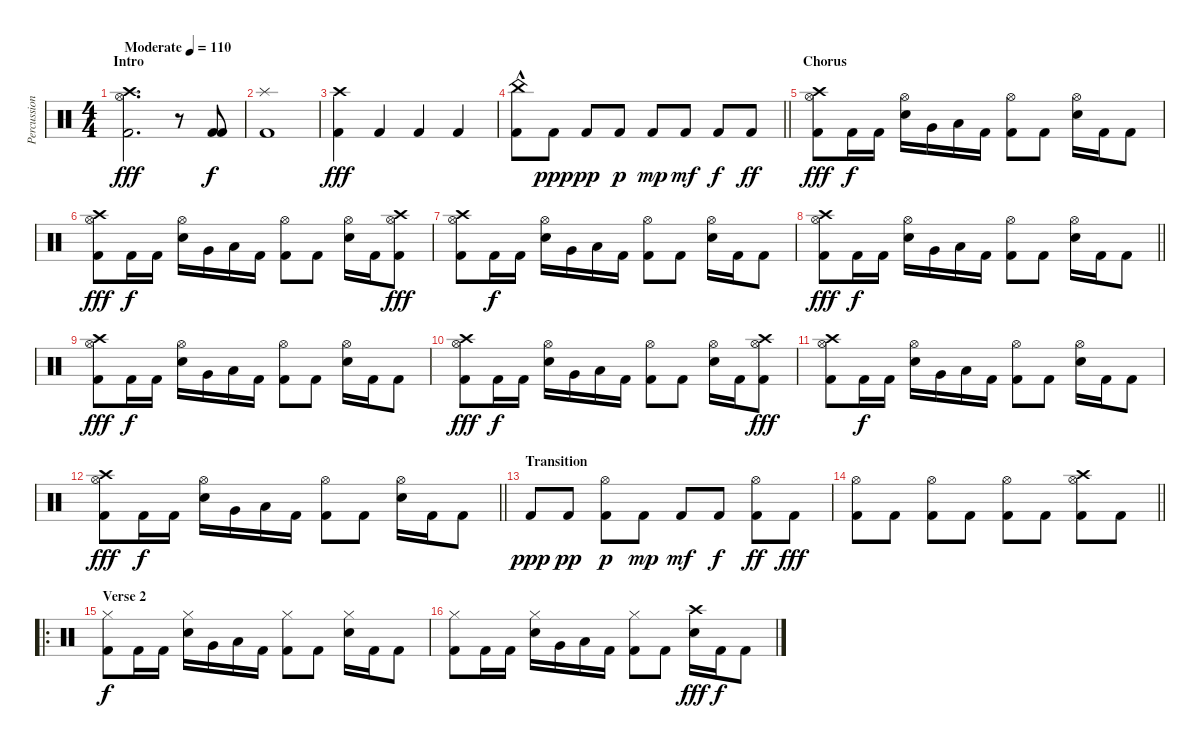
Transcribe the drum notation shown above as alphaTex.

\track ("Percussion" "Percussion") {instrument percussion}
\staff {score}
\articulation defaults
\ts (4 4)
\section ("" "Intro")
\tempo (110 "Moderate")
\clef neutral
\ks c
("Crash high (hit)" "Hi-Hat (open)" "Kick (hit) 2").2{d dy fff} r.8 ("Kick (hit) 2" "Kick (hit) 2").8{dy f} |
("Splash (hit)" "Kick (hit) 2").1 |
("Crash high (hit)" "Kick (hit) 2").4{dy fff} "Kick (hit) 2".4 "Kick (hit) 2".4 "Kick (hit) 2".4 |
\barLineRight lightlight
("China (hit)"{hac} "Kick (hit) 2").8 "Kick (hit) 2".8{dy ppp} "Kick (hit) 2".8{dy pp} "Kick (hit) 2".8{dy p} "Kick (hit) 2".8{dy mp} "Kick (hit) 2".8{dy mf} "Kick (hit) 2".8{dy f} "Kick (hit) 2".8{dy ff} |
\section ("" "Chorus")
("Crash high (hit)" "Hi-Hat (open)" "Kick (hit) 2").8{dy fff} "Kick (hit) 2".16{dy f} "Kick (hit) 2".16 ("Hi-Hat (open)" "Snare (hit) 2").16 "Very Low Tom (hit)".16 "Low Tom (hit)".16 "Kick (hit) 2".16 ("Hi-Hat (open)" "Kick (hit) 2").8 "Kick (hit) 2".8 ("Hi-Hat (open)" "Snare (hit) 2").16 "Kick (hit) 2".16 "Kick (hit) 2".8 |
("Crash high (hit)" "Hi-Hat (open)" "Kick (hit) 2").8{dy fff} "Kick (hit) 2".16{dy f} "Kick (hit) 2".16 ("Hi-Hat (open)" "Snare (hit) 2").16 "Very Low Tom (hit)".16 "Low Tom (hit)".16 "Kick (hit) 2".16 ("Hi-Hat (open)" "Kick (hit) 2").8 "Kick (hit) 2".8 ("Hi-Hat (open)" "Snare (hit) 2").16 "Kick (hit) 2".16 ("Crash high (hit)" "Hi-Hat (open)" "Kick (hit) 2").8{dy fff} |
("Crash high (hit)" "Hi-Hat (open)" "Kick (hit) 2").8 "Kick (hit) 2".16{dy f} "Kick (hit) 2".16 ("Hi-Hat (open)" "Snare (hit) 2").16 "Very Low Tom (hit)".16 "Low Tom (hit)".16 "Kick (hit) 2".16 ("Hi-Hat (open)" "Kick (hit) 2").8 "Kick (hit) 2".8 ("Hi-Hat (open)" "Snare (hit) 2").16 "Kick (hit) 2".16 "Kick (hit) 2".8 |
\barLineRight lightlight
("Crash high (hit)" "Hi-Hat (open)" "Kick (hit) 2").8{dy fff} "Kick (hit) 2".16{dy f} "Kick (hit) 2".16 ("Hi-Hat (open)" "Snare (hit) 2").16 "Very Low Tom (hit)".16 "Low Tom (hit)".16 "Kick (hit) 2".16 ("Hi-Hat (open)" "Kick (hit) 2").8 "Kick (hit) 2".8 ("Hi-Hat (open)" "Snare (hit) 2").16 "Kick (hit) 2".16 "Kick (hit) 2".8 |
("Crash high (hit)" "Hi-Hat (open)" "Kick (hit) 2").8{dy fff} "Kick (hit) 2".16{dy f} "Kick (hit) 2".16 ("Hi-Hat (open)" "Snare (hit) 2").16 "Very Low Tom (hit)".16 "Low Tom (hit)".16 "Kick (hit) 2".16 ("Hi-Hat (open)" "Kick (hit) 2").8 "Kick (hit) 2".8 ("Hi-Hat (open)" "Snare (hit) 2").16 "Kick (hit) 2".16 "Kick (hit) 2".8 |
("Crash high (hit)" "Hi-Hat (open)" "Kick (hit) 2").8{dy fff} "Kick (hit) 2".16{dy f} "Kick (hit) 2".16 ("Hi-Hat (open)" "Snare (hit) 2").16 "Very Low Tom (hit)".16 "Low Tom (hit)".16 "Kick (hit) 2".16 ("Hi-Hat (open)" "Kick (hit) 2").8 "Kick (hit) 2".8 ("Hi-Hat (open)" "Snare (hit) 2").16 "Kick (hit) 2".16 ("Crash high (hit)" "Hi-Hat (open)" "Kick (hit) 2").8{dy fff} |
("Crash high (hit)" "Hi-Hat (open)" "Kick (hit) 2").8 "Kick (hit) 2".16{dy f} "Kick (hit) 2".16 ("Hi-Hat (open)" "Snare (hit) 2").16 "Very Low Tom (hit)".16 "Low Tom (hit)".16 "Kick (hit) 2".16 ("Hi-Hat (open)" "Kick (hit) 2").8 "Kick (hit) 2".8 ("Hi-Hat (open)" "Snare (hit) 2").16 "Kick (hit) 2".16 "Kick (hit) 2".8 |
\barLineRight lightlight
("Crash high (hit)" "Hi-Hat (open)" "Kick (hit) 2").8{dy fff} "Kick (hit) 2".16{dy f} "Kick (hit) 2".16 ("Hi-Hat (open)" "Snare (hit) 2").16 "Very Low Tom (hit)".16 "Low Tom (hit)".16 "Kick (hit) 2".16 ("Hi-Hat (open)" "Kick (hit) 2").8 "Kick (hit) 2".8 ("Hi-Hat (open)" "Snare (hit) 2").16 "Kick (hit) 2".16 "Kick (hit) 2".8 |
\section ("" "Transition")
"Kick (hit) 2".8{dy ppp} "Kick (hit) 2".8{dy pp} ("Hi-Hat (open)" "Kick (hit) 2").8{dy p} "Kick (hit) 2".8{dy mp} "Kick (hit) 2".8{dy mf} "Kick (hit) 2".8{dy f} ("Hi-Hat (open)" "Kick (hit) 2").8{dy ff} "Kick (hit) 2".8{dy fff} |
\barLineRight lightlight
("Hi-Hat (open)" "Kick (hit) 2").8 "Kick (hit) 2".8 ("Hi-Hat (open)" "Kick (hit) 2").8 "Kick (hit) 2".8 ("Hi-Hat (open)" "Kick (hit) 2").8 "Kick (hit) 2".8 ("Crash high (hit)" "Hi-Hat (open)" "Kick (hit) 2").8 "Kick (hit) 2".8 |
\ro
\section ("" "Verse 2")
("Hi-Hat (closed)" "Kick (hit) 2").8{dy f} "Kick (hit) 2".16 "Kick (hit) 2".16 ("Hi-Hat (closed)" "Snare (hit) 2").16 "Very Low Tom (hit)".16 "Low Tom (hit)".16 "Kick (hit) 2".16 ("Hi-Hat (closed)" "Kick (hit) 2").8 "Kick (hit) 2".8 ("Hi-Hat (closed)" "Snare (hit) 2").16 "Kick (hit) 2".16 "Kick (hit) 2".8 |
("Hi-Hat (closed)" "Kick (hit) 2").8 "Kick (hit) 2".16 "Kick (hit) 2".16 ("Hi-Hat (closed)" "Snare (hit) 2").16 "Very Low Tom (hit)".16 "Low Tom (hit)".16 "Kick (hit) 2".16 ("Hi-Hat (closed)" "Kick (hit) 2").8 "Kick (hit) 2".8 ("Crash high (hit)" "Snare (hit) 2").16{dy fff} "Kick (hit) 2".16{dy f} "Kick (hit) 2".8
